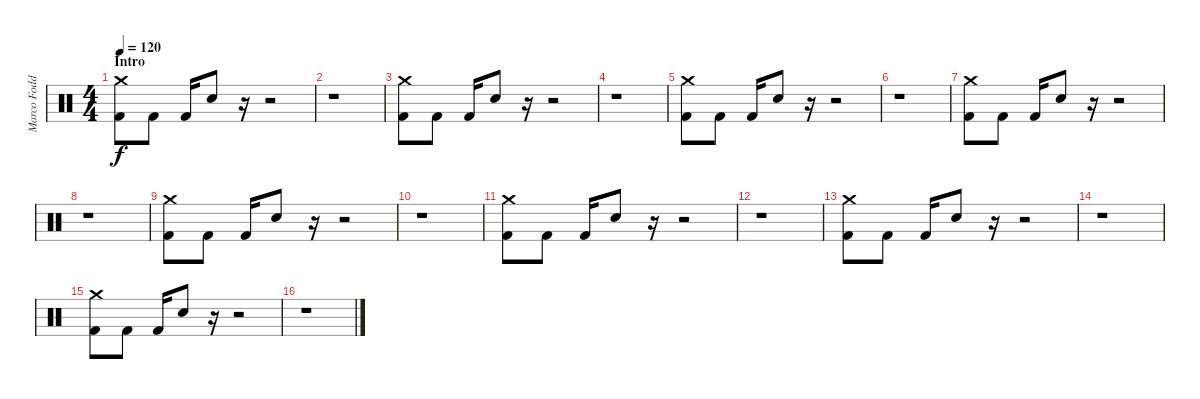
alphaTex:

\track ("Marco Foddis " "Marco Fodd") {instrument percussion}
\staff {score}
\articulation defaults
\ts (4 4)
\section ("" "Intro")
\tempo 120
\tempo 200
\tempo 120
\clef neutral
\ks c
("Crash medium (hit)" "Kick (hit) 2").8{dy f} "Kick (hit) 2".8 "Kick (hit) 2".16 "Electric Snare (hit)".8 r.16 r.2 |
r.1 |
("Crash medium (hit)" "Kick (hit) 2").8 "Kick (hit) 2".8 "Kick (hit) 2".16 "Electric Snare (hit)".8 r.16 r.2 |
r.1 |
("Crash medium (hit)" "Kick (hit) 2").8 "Kick (hit) 2".8 "Kick (hit) 2".16 "Electric Snare (hit)".8 r.16 r.2 |
r.1 |
("Crash medium (hit)" "Kick (hit) 2").8 "Kick (hit) 2".8 "Kick (hit) 2".16 "Electric Snare (hit)".8 r.16 r.2 |
r.1 |
("Crash medium (hit)" "Kick (hit) 2").8 "Kick (hit) 2".8 "Kick (hit) 2".16 "Electric Snare (hit)".8 r.16 r.2 |
r.1 |
("Crash medium (hit)" "Kick (hit) 2").8 "Kick (hit) 2".8 "Kick (hit) 2".16 "Electric Snare (hit)".8 r.16 r.2 |
r.1 |
("Crash medium (hit)" "Kick (hit) 2").8 "Kick (hit) 2".8 "Kick (hit) 2".16 "Electric Snare (hit)".8 r.16 r.2 |
r.1 |
("Crash medium (hit)" "Kick (hit) 2").8 "Kick (hit) 2".8 "Kick (hit) 2".16 "Electric Snare (hit)".8 r.16 r.2 |
r.1
